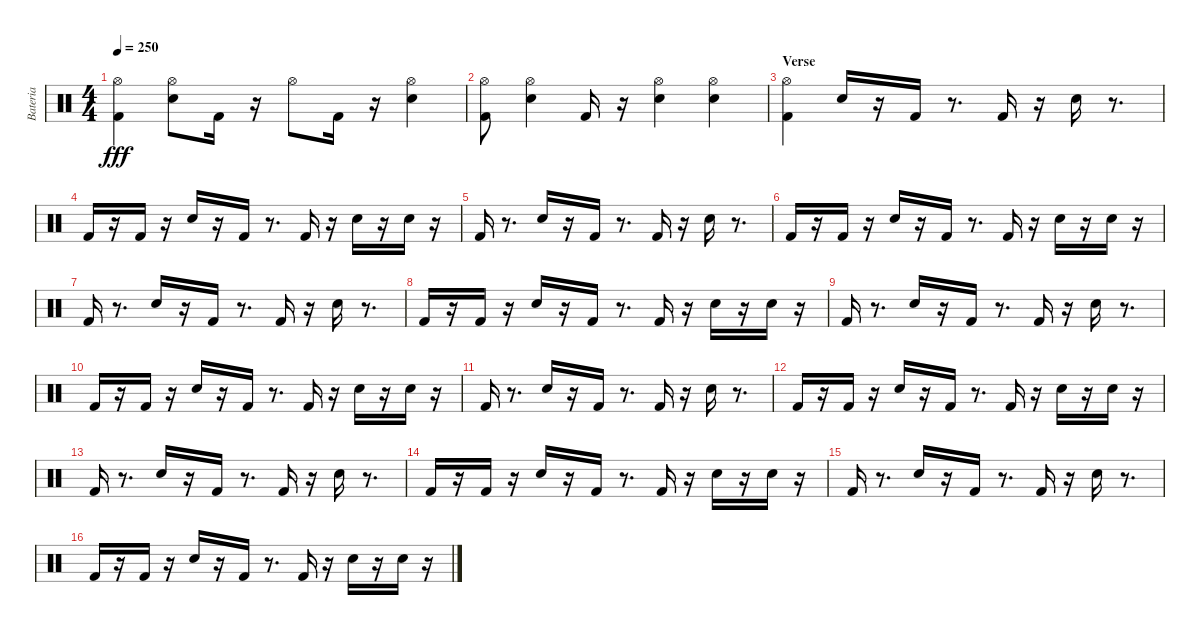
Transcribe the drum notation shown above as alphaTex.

\track ("Bateria" "Bateria") {instrument percussion}
\staff {score}
\articulation defaults
\ts (4 4)
\tempo 250
\clef neutral
\ks c
("Kick (hit) 2" "Hi-Hat (open)").4{dy fff} ("Electric Snare (hit)" "Hi-Hat (open)").8 "Kick (hit) 2".16 r.16 "Hi-Hat (open)".8 "Kick (hit) 2".16 r.16 ("Electric Snare (hit)" "Hi-Hat (open)").4 |
("Kick (hit) 2" "Hi-Hat (open)").8 ("Electric Snare (hit)" "Hi-Hat (open)").4 "Kick (hit) 2".16 r.16 ("Electric Snare (hit)" "Hi-Hat (open)").4 ("Electric Snare (hit)" "Hi-Hat (open)").4 |
\section ("" "Verse")
("Hi-Hat (open)" "Kick (hit) 2").4 "Electric Snare (hit)".16 r.16 "Kick (hit) 2".16 r.8{d} "Kick (hit) 2".16 r.16 "Electric Snare (hit)".16 r.8{d} |
"Kick (hit) 2".16 r.16 "Kick (hit) 2".16 r.16 "Electric Snare (hit)".16 r.16 "Kick (hit) 2".16 r.8{d} "Kick (hit) 2".16 r.16 "Electric Snare (hit)".16 r.16 "Electric Snare (hit)".16 r.16 |
"Kick (hit) 2".16 r.8{d} "Electric Snare (hit)".16 r.16 "Kick (hit) 2".16 r.8{d} "Kick (hit) 2".16 r.16 "Electric Snare (hit)".16 r.8{d} |
"Kick (hit) 2".16 r.16 "Kick (hit) 2".16 r.16 "Electric Snare (hit)".16 r.16 "Kick (hit) 2".16 r.8{d} "Kick (hit) 2".16 r.16 "Electric Snare (hit)".16 r.16 "Electric Snare (hit)".16 r.16 |
"Kick (hit) 2".16 r.8{d} "Electric Snare (hit)".16 r.16 "Kick (hit) 2".16 r.8{d} "Kick (hit) 2".16 r.16 "Electric Snare (hit)".16 r.8{d} |
"Kick (hit) 2".16 r.16 "Kick (hit) 2".16 r.16 "Electric Snare (hit)".16 r.16 "Kick (hit) 2".16 r.8{d} "Kick (hit) 2".16 r.16 "Electric Snare (hit)".16 r.16 "Electric Snare (hit)".16 r.16 |
"Kick (hit) 2".16 r.8{d} "Electric Snare (hit)".16 r.16 "Kick (hit) 2".16 r.8{d} "Kick (hit) 2".16 r.16 "Electric Snare (hit)".16 r.8{d} |
"Kick (hit) 2".16 r.16 "Kick (hit) 2".16 r.16 "Electric Snare (hit)".16 r.16 "Kick (hit) 2".16 r.8{d} "Kick (hit) 2".16 r.16 "Electric Snare (hit)".16 r.16 "Electric Snare (hit)".16 r.16 |
"Kick (hit) 2".16 r.8{d} "Electric Snare (hit)".16 r.16 "Kick (hit) 2".16 r.8{d} "Kick (hit) 2".16 r.16 "Electric Snare (hit)".16 r.8{d} |
"Kick (hit) 2".16 r.16 "Kick (hit) 2".16 r.16 "Electric Snare (hit)".16 r.16 "Kick (hit) 2".16 r.8{d} "Kick (hit) 2".16 r.16 "Electric Snare (hit)".16 r.16 "Electric Snare (hit)".16 r.16 |
"Kick (hit) 2".16 r.8{d} "Electric Snare (hit)".16 r.16 "Kick (hit) 2".16 r.8{d} "Kick (hit) 2".16 r.16 "Electric Snare (hit)".16 r.8{d} |
"Kick (hit) 2".16 r.16 "Kick (hit) 2".16 r.16 "Electric Snare (hit)".16 r.16 "Kick (hit) 2".16 r.8{d} "Kick (hit) 2".16 r.16 "Electric Snare (hit)".16 r.16 "Electric Snare (hit)".16 r.16 |
"Kick (hit) 2".16 r.8{d} "Electric Snare (hit)".16 r.16 "Kick (hit) 2".16 r.8{d} "Kick (hit) 2".16 r.16 "Electric Snare (hit)".16 r.8{d} |
"Kick (hit) 2".16 r.16 "Kick (hit) 2".16 r.16 "Electric Snare (hit)".16 r.16 "Kick (hit) 2".16 r.8{d} "Kick (hit) 2".16 r.16 "Electric Snare (hit)".16 r.16 "Electric Snare (hit)".16 r.16
